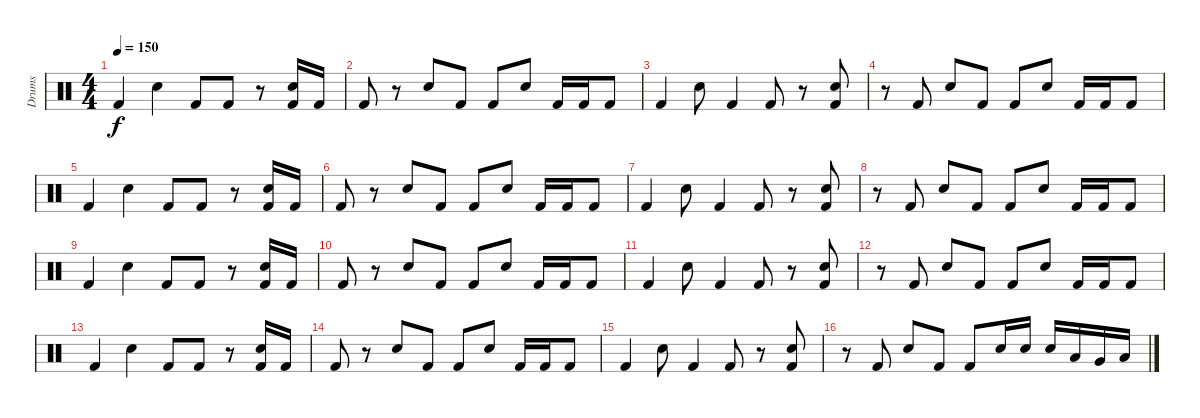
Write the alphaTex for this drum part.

\track ("Drums" "Drums") {instrument percussion}
\staff {score}
\articulation defaults
\ts (4 4)
\tempo 150
\clef neutral
\ks c "Kick (hit) 2".4{dy f} "Electric Snare (hit)".4 "Kick (hit) 2".8 "Kick (hit) 2".8
r.8 ("Electric Snare (hit)" "Kick (hit) 2").16 "Kick (hit) 2".16 |
"Kick (hit) 2".8 r.8 "Electric Snare (hit)".8 "Kick (hit) 2".8 "Kick (hit) 2".8 "Electric Snare (hit)".8 "Kick (hit) 2".16 "Kick (hit) 2".16 "Kick (hit) 2".8 |
"Kick (hit) 2".4 "Electric Snare (hit)".8 "Kick (hit) 2".4 "Kick (hit) 2".8 r.8 ("Electric Snare (hit)" "Kick (hit) 2").8 |
r.8 "Kick (hit) 2".8 "Electric Snare (hit)".8 "Kick (hit) 2".8 "Kick (hit) 2".8 "Electric Snare (hit)".8 "Kick (hit) 2".16 "Kick (hit) 2".16 "Kick (hit) 2".8 |
"Kick (hit) 2".4 "Electric Snare (hit)".4 "Kick (hit) 2".8 "Kick (hit) 2".8 r.8 ("Electric Snare (hit)" "Kick (hit) 2").16 "Kick (hit) 2".16 |
"Kick (hit) 2".8 r.8 "Electric Snare (hit)".8 "Kick (hit) 2".8 "Kick (hit) 2".8 "Electric Snare (hit)".8 "Kick (hit) 2".16 "Kick (hit) 2".16 "Kick (hit) 2".8 |
"Kick (hit) 2".4 "Electric Snare (hit)".8 "Kick (hit) 2".4 "Kick (hit) 2".8 r.8 ("Electric Snare (hit)" "Kick (hit) 2").8 |
r.8 "Kick (hit) 2".8 "Electric Snare (hit)".8 "Kick (hit) 2".8 "Kick (hit) 2".8 "Electric Snare (hit)".8 "Kick (hit) 2".16 "Kick (hit) 2".16 "Kick (hit) 2".8 |
"Kick (hit) 2".4 "Electric Snare (hit)".4 "Kick (hit) 2".8 "Kick (hit) 2".8 r.8 ("Electric Snare (hit)" "Kick (hit) 2").16 "Kick (hit) 2".16 |
"Kick (hit) 2".8 r.8 "Electric Snare (hit)".8 "Kick (hit) 2".8 "Kick (hit) 2".8 "Electric Snare (hit)".8 "Kick (hit) 2".16 "Kick (hit) 2".16 "Kick (hit) 2".8 |
"Kick (hit) 2".4 "Electric Snare (hit)".8 "Kick (hit) 2".4 "Kick (hit) 2".8 r.8 ("Electric Snare (hit)" "Kick (hit) 2").8 |
r.8 "Kick (hit) 2".8 "Electric Snare (hit)".8 "Kick (hit) 2".8 "Kick (hit) 2".8 "Electric Snare (hit)".8 "Kick (hit) 2".16 "Kick (hit) 2".16 "Kick (hit) 2".8 |
"Kick (hit) 2".4 "Electric Snare (hit)".4 "Kick (hit) 2".8 "Kick (hit) 2".8 r.8 ("Electric Snare (hit)" "Kick (hit) 2").16 "Kick (hit) 2".16 |
"Kick (hit) 2".8 r.8 "Electric Snare (hit)".8 "Kick (hit) 2".8 "Kick (hit) 2".8 "Electric Snare (hit)".8 "Kick (hit) 2".16 "Kick (hit) 2".16 "Kick (hit) 2".8 |
"Kick (hit) 2".4 "Electric Snare (hit)".8 "Kick (hit) 2".4 "Kick (hit) 2".8 r.8 ("Electric Snare (hit)" "Kick (hit) 2").8 |
r.8 "Kick (hit) 2".8 "Electric Snare (hit)".8 "Kick (hit) 2".8 "Kick (hit) 2".8 "Electric Snare (hit)".16 "Electric Snare (hit)".16 "Electric Snare (hit)".16 "Low Tom (hit)".16 "Very Low Tom (hit)".16 "Low Floor Tom (hit)".16
